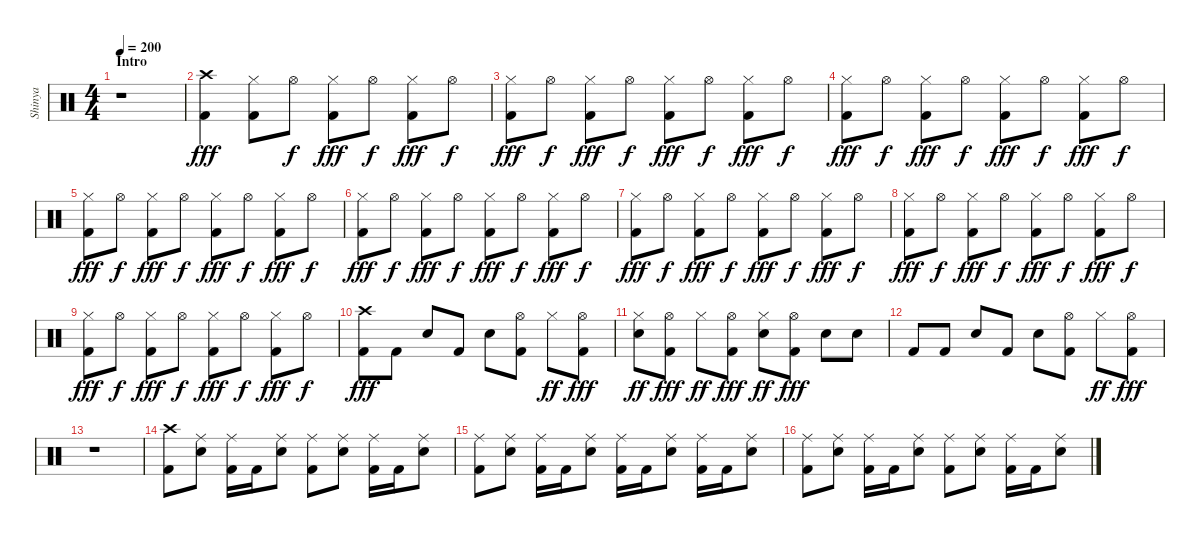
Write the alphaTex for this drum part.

\track ("Shinya" "Shinya") {instrument percussion}
\staff {score}
\articulation defaults
\ts (4 4)
\section ("" "Intro")
\tempo 200
\clef neutral
\ks c
r.1{dy fff} |
("Kick (hit) 2" "Crash high (hit)").4 ("Hi-Hat (closed)" "Kick (hit) 2").8 "Hi-Hat (open)".8{dy f} ("Hi-Hat (closed)" "Kick (hit) 2").8{dy fff} "Hi-Hat (open)".8{dy f} ("Hi-Hat (closed)" "Kick (hit) 2").8{dy fff} "Hi-Hat (open)".8{dy f} |
("Hi-Hat (closed)" "Kick (hit) 2").8{dy fff} "Hi-Hat (open)".8{dy f} ("Hi-Hat (closed)" "Kick (hit) 2").8{dy fff} "Hi-Hat (open)".8{dy f} ("Hi-Hat (closed)" "Kick (hit) 2").8{dy fff} "Hi-Hat (open)".8{dy f} ("Hi-Hat (closed)" "Kick (hit) 2").8{dy fff} "Hi-Hat (open)".8{dy f} |
("Hi-Hat (closed)" "Kick (hit) 2").8{dy fff} "Hi-Hat (open)".8{dy f} ("Hi-Hat (closed)" "Kick (hit) 2").8{dy fff} "Hi-Hat (open)".8{dy f} ("Hi-Hat (closed)" "Kick (hit) 2").8{dy fff} "Hi-Hat (open)".8{dy f} ("Hi-Hat (closed)" "Kick (hit) 2").8{dy fff} "Hi-Hat (open)".8{dy f} |
("Hi-Hat (closed)" "Kick (hit) 2").8{dy fff} "Hi-Hat (open)".8{dy f} ("Hi-Hat (closed)" "Kick (hit) 2").8{dy fff} "Hi-Hat (open)".8{dy f} ("Hi-Hat (closed)" "Kick (hit) 2").8{dy fff} "Hi-Hat (open)".8{dy f} ("Hi-Hat (closed)" "Kick (hit) 2").8{dy fff} "Hi-Hat (open)".8{dy f} |
("Hi-Hat (closed)" "Kick (hit) 2").8{dy fff} "Hi-Hat (open)".8{dy f} ("Hi-Hat (closed)" "Kick (hit) 2").8{dy fff} "Hi-Hat (open)".8{dy f} ("Hi-Hat (closed)" "Kick (hit) 2").8{dy fff} "Hi-Hat (open)".8{dy f} ("Hi-Hat (closed)" "Kick (hit) 2").8{dy fff} "Hi-Hat (open)".8{dy f} |
("Hi-Hat (closed)" "Kick (hit) 2").8{dy fff} "Hi-Hat (open)".8{dy f} ("Hi-Hat (closed)" "Kick (hit) 2").8{dy fff} "Hi-Hat (open)".8{dy f} ("Hi-Hat (closed)" "Kick (hit) 2").8{dy fff} "Hi-Hat (open)".8{dy f} ("Hi-Hat (closed)" "Kick (hit) 2").8{dy fff} "Hi-Hat (open)".8{dy f} |
("Hi-Hat (closed)" "Kick (hit) 2").8{dy fff} "Hi-Hat (open)".8{dy f} ("Hi-Hat (closed)" "Kick (hit) 2").8{dy fff} "Hi-Hat (open)".8{dy f} ("Hi-Hat (closed)" "Kick (hit) 2").8{dy fff} "Hi-Hat (open)".8{dy f} ("Hi-Hat (closed)" "Kick (hit) 2").8{dy fff} "Hi-Hat (open)".8{dy f} |
("Hi-Hat (closed)" "Kick (hit) 2").8{dy fff} "Hi-Hat (open)".8{dy f} ("Hi-Hat (closed)" "Kick (hit) 2").8{dy fff} "Hi-Hat (open)".8{dy f} ("Hi-Hat (closed)" "Kick (hit) 2").8{dy fff} "Hi-Hat (open)".8{dy f} ("Hi-Hat (closed)" "Kick (hit) 2").8{dy fff} "Hi-Hat (open)".8{dy f} |
("Kick (hit) 2" "Crash high (hit)").8{dy fff} "Kick (hit) 2".8 "Snare (hit) 2".8 "Kick (hit) 2".8 "Snare (hit) 2".8 ("Hi-Hat (open)" "Kick (hit) 2").8 "Hi-Hat (closed)".8{dy ff} ("Hi-Hat (open)" "Kick (hit) 2").8{dy fff} |
("Snare (hit) 2" "Hi-Hat (closed)").8{dy ff} ("Hi-Hat (open)" "Kick (hit) 2").8{dy fff} "Hi-Hat (closed)".8{dy ff} ("Hi-Hat (open)" "Kick (hit) 2").8{dy fff} ("Snare (hit) 2" "Hi-Hat (closed)").8{dy ff} ("Hi-Hat (open)" "Kick (hit) 2").8{dy fff} "Snare (hit) 2".8 "Snare (hit) 2".8 |
"Kick (hit) 2".8 "Kick (hit) 2".8 "Snare (hit) 2".8 "Kick (hit) 2".8 "Snare (hit) 2".8 ("Hi-Hat (open)" "Kick (hit) 2").8 "Hi-Hat (closed)".8{dy ff} ("Hi-Hat (open)" "Kick (hit) 2").8{dy fff} |
r.1 |
("Kick (hit) 2" "Crash high (hit)").8 ("Snare (hit) 2" "Ride (middle)").8 ("Ride (middle)" "Kick (hit) 2").16 "Kick (hit) 2".16 ("Snare (hit) 2" "Ride (middle)").8 ("Ride (middle)" "Kick (hit) 2").8 ("Snare (hit) 2" "Ride (middle)").8 ("Ride (middle)" "Kick (hit) 2").16 "Kick (hit) 2".16 ("Snare (hit) 2" "Ride (middle)").8 |
("Ride (middle)" "Kick (hit) 2").8 ("Snare (hit) 2" "Ride (middle)").8 ("Ride (middle)" "Kick (hit) 2").16 "Kick (hit) 2".16 ("Snare (hit) 2" "Ride (middle)").8 ("Ride (middle)" "Kick (hit) 2").16 "Kick (hit) 2".16 ("Snare (hit) 2" "Ride (middle)").8 ("Ride (middle)" "Kick (hit) 2").16 "Kick (hit) 2".16 ("Snare (hit) 2" "Ride (middle)").8 |
("Ride (middle)" "Kick (hit) 2").8 ("Snare (hit) 2" "Ride (middle)").8 ("Ride (middle)" "Kick (hit) 2").16 "Kick (hit) 2".16 ("Snare (hit) 2" "Ride (middle)").8 ("Ride (middle)" "Kick (hit) 2").8 ("Snare (hit) 2" "Ride (middle)").8 ("Ride (middle)" "Kick (hit) 2").16 "Kick (hit) 2".16 ("Snare (hit) 2" "Ride (middle)").8
